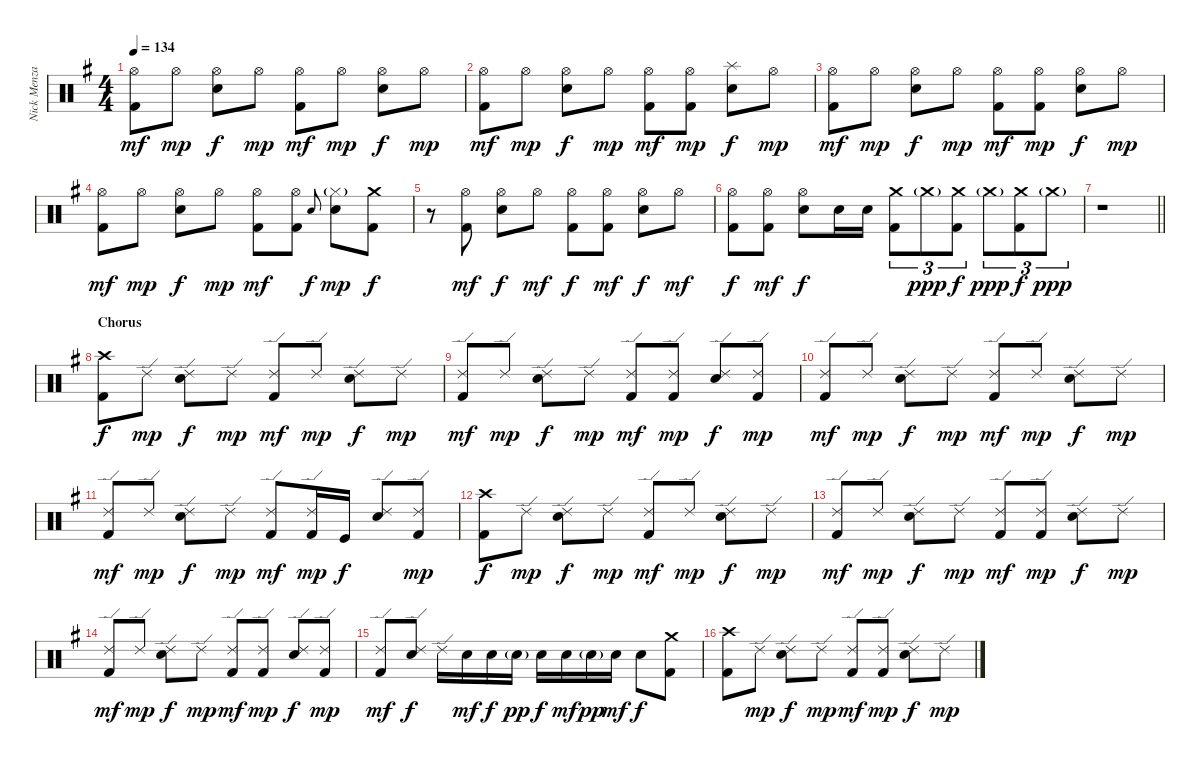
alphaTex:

\track ("Nick Menza" "Nick Menza") {instrument percussion}
\staff {score}
\articulation defaults
\ts (4 4)
\tempo 134
\clef neutral
\ks eminor
("Hi-Hat (open)" "Kick (hit) 2").8{dy mf} "Hi-Hat (open)".8{dy mp} ("Hi-Hat (open)" "Snare (hit) 2").8{dy f} "Hi-Hat (open)".8{dy mp} ("Hi-Hat (open)" "Kick (hit) 2").8{dy mf} "Hi-Hat (open)".8{dy mp} ("Hi-Hat (open)" "Snare (hit) 2").8{dy f} "Hi-Hat (open)".8{dy mp} |
("Hi-Hat (open)" "Kick (hit) 2").8{dy mf} "Hi-Hat (open)".8{dy mp} ("Hi-Hat (open)" "Snare (hit) 2").8{dy f} "Hi-Hat (open)".8{dy mp} ("Hi-Hat (open)" "Kick (hit) 2").8{dy mf} ("Hi-Hat (open)" "Kick (hit) 2").8{dy mp} ("Splash (hit)" "Snare (hit) 2").8{dy f} "Hi-Hat (open)".8{dy mp} |
("Hi-Hat (open)" "Kick (hit) 2").8{dy mf} "Hi-Hat (open)".8{dy mp} ("Hi-Hat (open)" "Snare (hit) 2").8{dy f} "Hi-Hat (open)".8{dy mp} ("Hi-Hat (open)" "Kick (hit) 2").8{dy mf} ("Hi-Hat (open)" "Kick (hit) 2").8{dy mp} ("Hi-Hat (open)" "Snare (hit) 2").8{dy f} "Hi-Hat (open)".8{dy mp} |
("Hi-Hat (open)" "Kick (hit) 2").8{dy mf} "Hi-Hat (open)".8{dy mp} ("Hi-Hat (open)" "Snare (hit) 2").8{dy f} "Hi-Hat (open)".8{dy mp} ("Hi-Hat (open)" "Kick (hit) 2").8{dy mf} ("Hi-Hat (open)" "Kick (hit) 2").8 "Snare (hit) 2".8{gr onbeat dy f} ("Hi-Hat (closed)"{g} "Snare (hit) 2").8{dy mp} ("Crash medium (hit)" "Kick (hit) 2").8{dy f} |
r.8 ("Hi-Hat (open)" "Kick (hit) 2").8{dy mf} ("Hi-Hat (open)" "Snare (hit) 2").8{dy f} "Hi-Hat (open)".8{dy mf} ("Hi-Hat (open)" "Kick (hit) 2").8{dy f} ("Hi-Hat (open)" "Kick (hit) 2").8{dy mf} ("Hi-Hat (open)" "Snare (hit) 2").8{dy f} "Hi-Hat (open)".8{dy mf} |
("Hi-Hat (open)" "Kick (hit) 2").8{dy f} ("Hi-Hat (open)" "Kick (hit) 2").8{dy mf} ("Hi-Hat (open)" "Snare (hit) 2").8{dy f} "Snare (hit) 2".16 "Snare (hit) 2".16 ("Crash medium (hit)" "Kick (hit) 2").8{tu (3 2)} "Crash medium (hit)"{g}.8{tu (3 2) dy ppp} ("Crash medium (hit)" "Kick (hit) 2").8{tu (3 2) dy f} "Crash medium (hit)"{g}.8{tu (3 2) dy ppp} ("Crash medium (hit)" "Kick (hit) 2").8{tu (3 2) dy f} "Crash medium (hit)"{g}.8{tu (3 2) dy ppp} |
\barLineRight lightlight
r.1 |
\section ("" "Chorus")
("Crash high (hit)" "Kick (hit) 2").8{dy f} "Ride (edge) 2".8{dy mp} ("Ride (edge) 2" "Snare (hit) 2").8{dy f} "Ride (edge) 2".8{dy mp} ("Ride (edge) 2" "Kick (hit) 2").8{dy mf} "Ride (edge) 2".8{dy mp} ("Ride (edge) 2" "Snare (hit) 2").8{dy f} "Ride (edge) 2".8{dy mp} |
("Ride (edge) 2" "Kick (hit) 2").8{dy mf} "Ride (edge) 2".8{dy mp} ("Ride (edge) 2" "Snare (hit) 2").8{dy f} "Ride (edge) 2".8{dy mp} ("Ride (edge) 2" "Kick (hit) 2").8{dy mf} ("Ride (edge) 2" "Kick (hit) 2").8{dy mp} ("Ride (edge) 2" "Snare (hit) 2").8{dy f} ("Ride (edge) 2" "Kick (hit) 2").8{dy mp} |
("Ride (edge) 2" "Kick (hit) 2").8{dy mf} "Ride (edge) 2".8{dy mp} ("Ride (edge) 2" "Snare (hit) 2").8{dy f} "Ride (edge) 2".8{dy mp} ("Ride (edge) 2" "Kick (hit) 2").8{dy mf} "Ride (edge) 2".8{dy mp} ("Ride (edge) 2" "Snare (hit) 2").8{dy f} "Ride (edge) 2".8{dy mp} |
("Ride (edge) 2" "Kick (hit) 2").8{dy mf} "Ride (edge) 2".8{dy mp} ("Ride (edge) 2" "Snare (hit) 2").8{dy f} "Ride (edge) 2".8{dy mp} ("Ride (edge) 2" "Kick (hit) 2").8{dy mf} ("Ride (edge) 2" "Kick (hit) 2").16{dy mp} "Kick (hit)".16{dy f} ("Ride (edge) 2" "Snare (hit) 2").8 ("Ride (edge) 2" "Kick (hit) 2").8{dy mp} |
("Crash high (hit)" "Kick (hit) 2").8{dy f} "Ride (edge) 2".8{dy mp} ("Ride (edge) 2" "Snare (hit) 2").8{dy f} "Ride (edge) 2".8{dy mp} ("Ride (edge) 2" "Kick (hit) 2").8{dy mf} "Ride (edge) 2".8{dy mp} ("Ride (edge) 2" "Snare (hit) 2").8{dy f} "Ride (edge) 2".8{dy mp} |
("Ride (edge) 2" "Kick (hit) 2").8{dy mf} "Ride (edge) 2".8{dy mp} ("Ride (edge) 2" "Snare (hit) 2").8{dy f} "Ride (edge) 2".8{dy mp} ("Ride (edge) 2" "Kick (hit) 2").8{dy mf} ("Ride (edge) 2" "Kick (hit) 2").8{dy mp} ("Ride (edge) 2" "Snare (hit) 2").8{dy f} "Ride (edge) 2".8{dy mp} |
("Ride (edge) 2" "Kick (hit) 2").8{dy mf} "Ride (edge) 2".8{dy mp} ("Ride (edge) 2" "Snare (hit) 2").8{dy f} "Ride (edge) 2".8{dy mp} ("Ride (edge) 2" "Kick (hit) 2").8{dy mf} ("Ride (edge) 2" "Kick (hit) 2").8{dy mp} ("Ride (edge) 2" "Snare (hit) 2").8{dy f} ("Ride (edge) 2" "Kick (hit) 2").8{dy mp} |
("Ride (edge) 2" "Kick (hit) 2").8{dy mf} ("Ride (edge) 2" "Snare (hit) 2").8{dy f} "Ride (edge) 2".16 "Snare (hit) 2".16{dy mf} "Snare (hit) 2".16{dy f} "Snare (hit) 2"{g}.16{dy pp} "Snare (hit) 2".16{dy f} "Snare (hit) 2".16{dy mf} "Snare (hit) 2"{g}.16{dy pp} "Snare (hit) 2".16{dy mf} "Snare (hit) 2".8{dy f} ("Crash medium (hit)" "Kick (hit) 2").8 |
("Crash high (hit)" "Kick (hit) 2").8 "Ride (edge) 2".8{dy mp} ("Ride (edge) 2" "Snare (hit) 2").8{dy f} "Ride (edge) 2".8{dy mp} ("Ride (edge) 2" "Kick (hit) 2").8{dy mf} ("Ride (edge) 2" "Kick (hit) 2").8{dy mp} ("Ride (edge) 2" "Snare (hit) 2").8{dy f} "Ride (edge) 2".8{dy mp}
